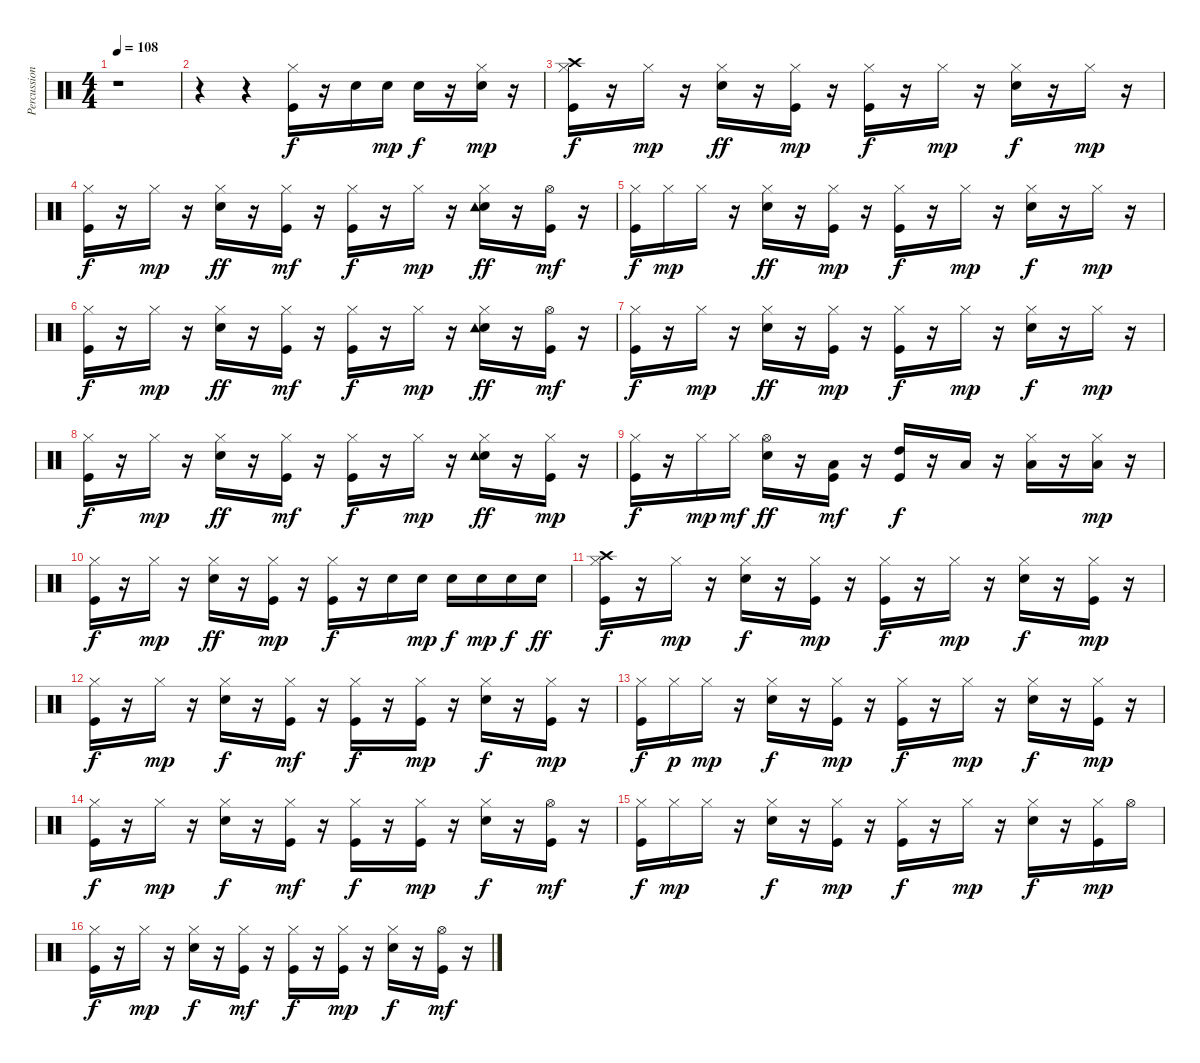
\track ("Percussion" "Percussion") {instrument percussion}
\staff {score}
\articulation defaults
\ts (4 4)
\tempo 108
\clef neutral
\ks c
r.1{dy f} |
r.4 r.4 ("Kick (hit)" "Hi-Hat (closed)").16 r.16 "Snare (hit) 2".16 "Snare (hit) 2".16{dy mp} "Snare (hit) 2".16{dy f} r.16 ("Snare (hit) 2" "Hi-Hat (closed)").16{dy mp} r.16 |
("Kick (hit)" "Hi-Hat (closed)" "Crash high (hit)").16{dy f} r.16 "Hi-Hat (closed)".16{dy mp} r.16 ("Snare (hit) 2" "Hi-Hat (closed)").16{dy ff} r.16 ("Kick (hit)" "Hi-Hat (closed)").16{dy mp} r.16 ("Kick (hit)" "Hi-Hat (closed)").16{dy f} r.16 "Hi-Hat (closed)".16{dy mp} r.16 ("Snare (hit) 2" "Hi-Hat (closed)").16{dy f} r.16 "Hi-Hat (closed)".16{dy mp} r.16 |
("Kick (hit)" "Hi-Hat (closed)").16{dy f} r.16 "Hi-Hat (closed)".16{dy mp} r.16 ("Snare (hit) 2" "Hi-Hat (closed)").16{dy ff} r.16 ("Kick (hit)" "Hi-Hat (closed)").16{dy mf} r.16 ("Kick (hit)" "Hi-Hat (closed)").16{dy f} r.16 "Hi-Hat (closed)".16{dy mp} r.16 ("Snare (hit) 2" "Hi-Hat (closed)" "Tambourine (hit)").16{dy ff} r.16 ("Kick (hit)" "Hi-Hat (open)").16{dy mf} r.16 |
("Kick (hit)" "Hi-Hat (closed)").16{dy f} "Hi-Hat (closed)".16{dy mp} "Hi-Hat (closed)".16 r.16 ("Snare (hit) 2" "Hi-Hat (closed)").16{dy ff} r.16 ("Kick (hit)" "Hi-Hat (closed)").16{dy mp} r.16 ("Kick (hit)" "Hi-Hat (closed)").16{dy f} r.16 "Hi-Hat (closed)".16{dy mp} r.16 ("Snare (hit) 2" "Hi-Hat (closed)").16{dy f} r.16 "Hi-Hat (closed)".16{dy mp} r.16 |
("Kick (hit)" "Hi-Hat (closed)").16{dy f} r.16 "Hi-Hat (closed)".16{dy mp} r.16 ("Snare (hit) 2" "Hi-Hat (closed)").16{dy ff} r.16 ("Kick (hit)" "Hi-Hat (closed)").16{dy mf} r.16 ("Kick (hit)" "Hi-Hat (closed)").16{dy f} r.16 "Hi-Hat (closed)".16{dy mp} r.16 ("Snare (hit) 2" "Hi-Hat (closed)" "Tambourine (hit)").16{dy ff} r.16 ("Kick (hit)" "Hi-Hat (open)").16{dy mf} r.16 |
("Kick (hit)" "Hi-Hat (closed)").16{dy f} r.16 "Hi-Hat (closed)".16{dy mp} r.16 ("Snare (hit) 2" "Hi-Hat (closed)").16{dy ff} r.16 ("Kick (hit)" "Hi-Hat (closed)").16{dy mp} r.16 ("Kick (hit)" "Hi-Hat (closed)").16{dy f} r.16 "Hi-Hat (closed)".16{dy mp} r.16 ("Snare (hit) 2" "Hi-Hat (closed)").16{dy f} r.16 "Hi-Hat (closed)".16{dy mp} r.16 |
("Kick (hit)" "Hi-Hat (closed)").16{dy f} r.16 "Hi-Hat (closed)".16{dy mp} r.16 ("Snare (hit) 2" "Hi-Hat (closed)").16{dy ff} r.16 ("Kick (hit)" "Hi-Hat (closed)").16{dy mf} r.16 ("Kick (hit)" "Hi-Hat (closed)").16{dy f} r.16 "Hi-Hat (closed)".16{dy mp} r.16 ("Snare (hit) 2" "Hi-Hat (closed)" "Tambourine (hit)").16{dy ff} r.16 ("Kick (hit)" "Hi-Hat (closed)").16{dy mp} r.16 |
("Kick (hit)" "Hi-Hat (closed)").16{dy f} r.16 "Hi-Hat (closed)".16{dy mp} "Hi-Hat (closed)".16{dy mf} ("Snare (hit) 2" "Hi-Hat (open)").16{dy ff} r.16 ("Kick (hit)" "Low Tom (hit)").16{dy mf} r.16 ("Kick (hit)" "High Tom (hit)").16{dy f} r.16 "Low Tom (hit)".16 r.16 ("Hi-Hat (closed)" "Low Tom (hit)").16 r.16 ("Hi-Hat (closed)" "Low Floor Tom (hit)").16{dy mp} r.16 |
("Kick (hit)" "Hi-Hat (closed)").16{dy f} r.16 "Hi-Hat (closed)".16{dy mp} r.16 ("Snare (hit) 2" "Hi-Hat (closed)").16{dy ff} r.16 ("Kick (hit)" "Hi-Hat (closed)").16{dy mp} r.16 ("Kick (hit)" "Hi-Hat (closed)").16{dy f} r.16 "Snare (hit) 2".16 "Snare (hit) 2".16{dy mp} "Snare (hit) 2".16{dy f} "Snare (hit) 2".16{dy mp} "Snare (hit) 2".16{dy f} "Snare (hit) 2".16{dy ff} |
("Kick (hit)" "Hi-Hat (closed)" "Crash high (hit)").16{dy f} r.16 "Hi-Hat (closed)".16{dy mp} r.16 ("Snare (hit) 2" "Hi-Hat (closed)").16{dy f} r.16 ("Kick (hit)" "Hi-Hat (closed)").16{dy mp} r.16 ("Kick (hit)" "Hi-Hat (closed)").16{dy f} r.16 "Hi-Hat (closed)".16{dy mp} r.16 ("Snare (hit) 2" "Hi-Hat (closed)").16{dy f} r.16 ("Kick (hit)" "Hi-Hat (closed)").16{dy mp} r.16 |
("Kick (hit)" "Hi-Hat (closed)").16{dy f} r.16 "Hi-Hat (closed)".16{dy mp} r.16 ("Snare (hit) 2" "Hi-Hat (closed)").16{dy f} r.16 ("Kick (hit)" "Hi-Hat (closed)").16{dy mf} r.16 ("Kick (hit)" "Hi-Hat (closed)").16{dy f} r.16 ("Kick (hit)" "Hi-Hat (closed)").16{dy mp} r.16 ("Snare (hit) 2" "Hi-Hat (closed)").16{dy f} r.16 ("Kick (hit)" "Hi-Hat (closed)").16{dy mp} r.16 |
("Kick (hit)" "Hi-Hat (closed)").16{dy f} "Hi-Hat (closed)".16{dy p} "Hi-Hat (closed)".16{dy mp} r.16 ("Snare (hit) 2" "Hi-Hat (closed)").16{dy f} r.16 ("Kick (hit)" "Hi-Hat (closed)").16{dy mp} r.16 ("Kick (hit)" "Hi-Hat (closed)").16{dy f} r.16 "Hi-Hat (closed)".16{dy mp} r.16 ("Snare (hit) 2" "Hi-Hat (closed)").16{dy f} r.16 ("Kick (hit)" "Hi-Hat (closed)").16{dy mp} r.16 |
("Kick (hit)" "Hi-Hat (closed)").16{dy f} r.16 "Hi-Hat (closed)".16{dy mp} r.16 ("Snare (hit) 2" "Hi-Hat (closed)").16{dy f} r.16 ("Kick (hit)" "Hi-Hat (closed)").16{dy mf} r.16 ("Kick (hit)" "Hi-Hat (closed)").16{dy f} r.16 ("Kick (hit)" "Hi-Hat (closed)").16{dy mp} r.16 ("Snare (hit) 2" "Hi-Hat (closed)").16{dy f} r.16 ("Kick (hit)" "Hi-Hat (open)").16{dy mf} r.16 |
("Kick (hit)" "Hi-Hat (closed)").16{dy f} "Hi-Hat (closed)".16{dy mp} "Hi-Hat (closed)".16 r.16 ("Snare (hit) 2" "Hi-Hat (closed)").16{dy f} r.16 ("Kick (hit)" "Hi-Hat (closed)").16{dy mp} r.16 ("Kick (hit)" "Hi-Hat (closed)").16{dy f} r.16 "Hi-Hat (closed)".16{dy mp} r.16 ("Snare (hit) 2" "Hi-Hat (closed)").16{dy f} r.16 ("Kick (hit)" "Hi-Hat (closed)").16{dy mp} "Hi-Hat (open)".16 |
("Kick (hit)" "Hi-Hat (closed)").16{dy f} r.16 "Hi-Hat (closed)".16{dy mp} r.16 ("Snare (hit) 2" "Hi-Hat (closed)").16{dy f} r.16 ("Kick (hit)" "Hi-Hat (closed)").16{dy mf} r.16 ("Kick (hit)" "Hi-Hat (closed)").16{dy f} r.16 ("Kick (hit)" "Hi-Hat (closed)").16{dy mp} r.16 ("Snare (hit) 2" "Hi-Hat (closed)").16{dy f} r.16 ("Kick (hit)" "Hi-Hat (open)").16{dy mf} r.16
